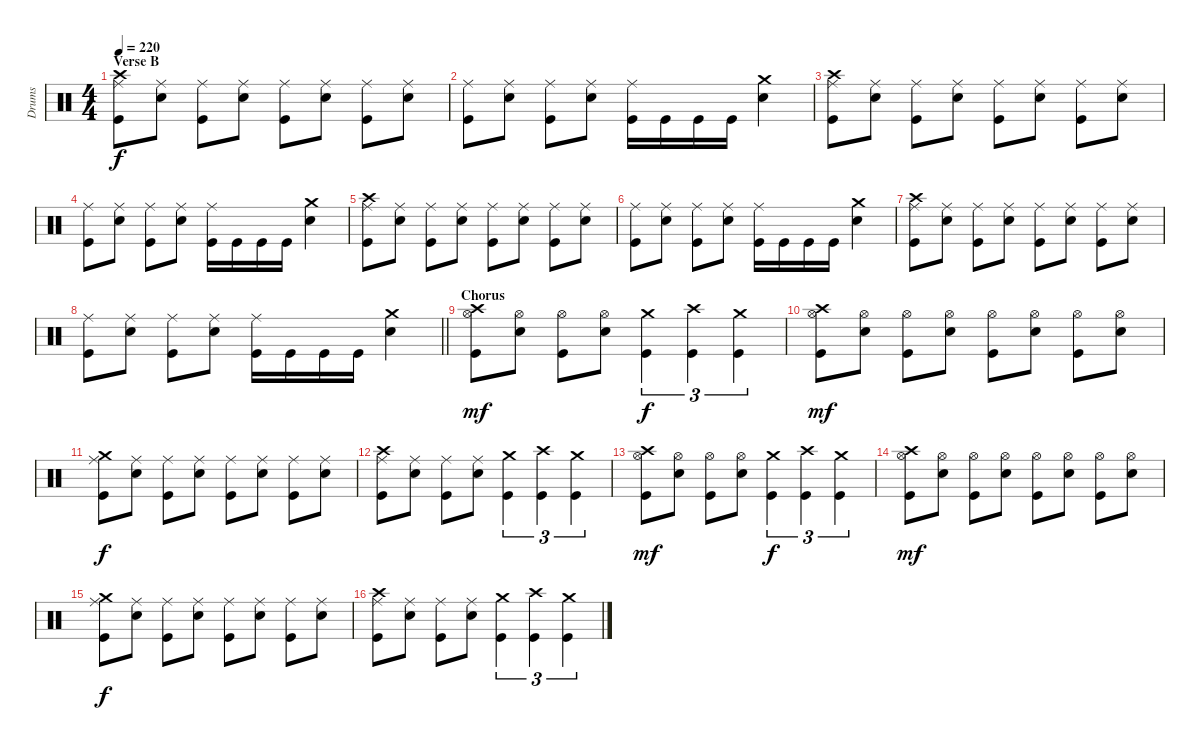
\track ("Drums" "Drums") {instrument percussion}
\staff {score}
\articulation defaults
\ts (4 4)
\section ("" "Verse B")
\tempo 220
\clef neutral
\ks c
("Crash high (hit)" "Ride (middle)" "Kick (hit)").8{dy f} ("Ride (middle)" "Electric Snare (hit)").8 ("Ride (middle)" "Kick (hit)").8 ("Ride (middle)" "Electric Snare (hit)").8 ("Ride (middle)" "Kick (hit)").8 ("Ride (middle)" "Electric Snare (hit)").8 ("Ride (middle)" "Kick (hit)").8 ("Ride (middle)" "Electric Snare (hit)").8 |
("Ride (middle)" "Kick (hit)").8 ("Ride (middle)" "Electric Snare (hit)").8 ("Ride (middle)" "Kick (hit)").8 ("Ride (middle)" "Electric Snare (hit)").8 ("Ride (middle)" "Kick (hit)").16 "Kick (hit)".16 "Kick (hit)".16 "Kick (hit)".16 ("Crash medium (hit)" "Electric Snare (hit)").4 |
("Crash high (hit)" "Ride (middle)" "Kick (hit)").8 ("Ride (middle)" "Electric Snare (hit)").8 ("Ride (middle)" "Kick (hit)").8 ("Ride (middle)" "Electric Snare (hit)").8 ("Ride (middle)" "Kick (hit)").8 ("Ride (middle)" "Electric Snare (hit)").8 ("Ride (middle)" "Kick (hit)").8 ("Ride (middle)" "Electric Snare (hit)").8 |
("Ride (middle)" "Kick (hit)").8 ("Ride (middle)" "Electric Snare (hit)").8 ("Ride (middle)" "Kick (hit)").8 ("Ride (middle)" "Electric Snare (hit)").8 ("Ride (middle)" "Kick (hit)").16 "Kick (hit)".16 "Kick (hit)".16 "Kick (hit)".16 ("Crash medium (hit)" "Electric Snare (hit)").4 |
("Crash high (hit)" "Ride (middle)" "Kick (hit)").8 ("Ride (middle)" "Electric Snare (hit)").8 ("Ride (middle)" "Kick (hit)").8 ("Ride (middle)" "Electric Snare (hit)").8 ("Ride (middle)" "Kick (hit)").8 ("Ride (middle)" "Electric Snare (hit)").8 ("Ride (middle)" "Kick (hit)").8 ("Ride (middle)" "Electric Snare (hit)").8 |
("Ride (middle)" "Kick (hit)").8 ("Ride (middle)" "Electric Snare (hit)").8 ("Ride (middle)" "Kick (hit)").8 ("Ride (middle)" "Electric Snare (hit)").8 ("Ride (middle)" "Kick (hit)").16 "Kick (hit)".16 "Kick (hit)".16 "Kick (hit)".16 ("Crash medium (hit)" "Electric Snare (hit)").4 |
("Crash high (hit)" "Ride (middle)" "Kick (hit)").8 ("Ride (middle)" "Electric Snare (hit)").8 ("Ride (middle)" "Kick (hit)").8 ("Ride (middle)" "Electric Snare (hit)").8 ("Ride (middle)" "Kick (hit)").8 ("Ride (middle)" "Electric Snare (hit)").8 ("Ride (middle)" "Kick (hit)").8 ("Ride (middle)" "Electric Snare (hit)").8 |
\barLineRight lightlight
("Ride (middle)" "Kick (hit)").8 ("Ride (middle)" "Electric Snare (hit)").8 ("Ride (middle)" "Kick (hit)").8 ("Ride (middle)" "Electric Snare (hit)").8 ("Ride (middle)" "Kick (hit)").16 "Kick (hit)".16 "Kick (hit)".16 "Kick (hit)".16 ("Crash medium (hit)" "Electric Snare (hit)").4 |
\section ("" "Chorus")
("Crash high (hit)" "Hi-Hat (open)" "Kick (hit)").8{dy mf} ("Hi-Hat (open)" "Electric Snare (hit)").8 ("Hi-Hat (open)" "Kick (hit)").8 ("Hi-Hat (open)" "Electric Snare (hit)").8 ("Crash medium (hit)" "Kick (hit)").4{tu (3 2) dy f} ("Crash high (hit)" "Kick (hit)").4{tu (3 2)} ("Crash medium (hit)" "Kick (hit)").4{tu (3 2)} |
("Crash high (hit)" "Hi-Hat (open)" "Kick (hit)").8{dy mf} ("Hi-Hat (open)" "Electric Snare (hit)").8 ("Hi-Hat (open)" "Kick (hit)").8 ("Hi-Hat (open)" "Electric Snare (hit)").8 ("Hi-Hat (open)" "Kick (hit)").8 ("Hi-Hat (open)" "Electric Snare (hit)").8 ("Hi-Hat (open)" "Kick (hit)").8 ("Hi-Hat (open)" "Electric Snare (hit)").8 |
("Crash medium (hit)" "Ride (middle)" "Kick (hit)").8{dy f} ("Ride (middle)" "Electric Snare (hit)").8 ("Ride (middle)" "Kick (hit)").8 ("Ride (middle)" "Electric Snare (hit)").8 ("Ride (middle)" "Kick (hit)").8 ("Ride (middle)" "Electric Snare (hit)").8 ("Ride (middle)" "Kick (hit)").8 ("Ride (middle)" "Electric Snare (hit)").8 |
("Crash high (hit)" "Ride (middle)" "Kick (hit)").8 ("Ride (middle)" "Electric Snare (hit)").8 ("Ride (middle)" "Kick (hit)").8 ("Ride (middle)" "Electric Snare (hit)").8 ("Crash medium (hit)" "Kick (hit)").4{tu (3 2)} ("Crash high (hit)" "Kick (hit)").4{tu (3 2)} ("Crash medium (hit)" "Kick (hit)").4{tu (3 2)} |
("Crash high (hit)" "Hi-Hat (open)" "Kick (hit)").8{dy mf} ("Hi-Hat (open)" "Electric Snare (hit)").8 ("Hi-Hat (open)" "Kick (hit)").8 ("Hi-Hat (open)" "Electric Snare (hit)").8 ("Crash medium (hit)" "Kick (hit)").4{tu (3 2) dy f} ("Crash high (hit)" "Kick (hit)").4{tu (3 2)} ("Crash medium (hit)" "Kick (hit)").4{tu (3 2)} |
("Crash high (hit)" "Hi-Hat (open)" "Kick (hit)").8{dy mf} ("Hi-Hat (open)" "Electric Snare (hit)").8 ("Hi-Hat (open)" "Kick (hit)").8 ("Hi-Hat (open)" "Electric Snare (hit)").8 ("Hi-Hat (open)" "Kick (hit)").8 ("Hi-Hat (open)" "Electric Snare (hit)").8 ("Hi-Hat (open)" "Kick (hit)").8 ("Hi-Hat (open)" "Electric Snare (hit)").8 |
("Crash medium (hit)" "Ride (middle)" "Kick (hit)").8{dy f} ("Ride (middle)" "Electric Snare (hit)").8 ("Ride (middle)" "Kick (hit)").8 ("Ride (middle)" "Electric Snare (hit)").8 ("Ride (middle)" "Kick (hit)").8 ("Ride (middle)" "Electric Snare (hit)").8 ("Ride (middle)" "Kick (hit)").8 ("Ride (middle)" "Electric Snare (hit)").8 |
("Crash high (hit)" "Ride (middle)" "Kick (hit)").8 ("Ride (middle)" "Electric Snare (hit)").8 ("Ride (middle)" "Kick (hit)").8 ("Ride (middle)" "Electric Snare (hit)").8 ("Crash medium (hit)" "Kick (hit)").4{tu (3 2)} ("Crash high (hit)" "Kick (hit)").4{tu (3 2)} ("Crash medium (hit)" "Kick (hit)").4{tu (3 2)}
